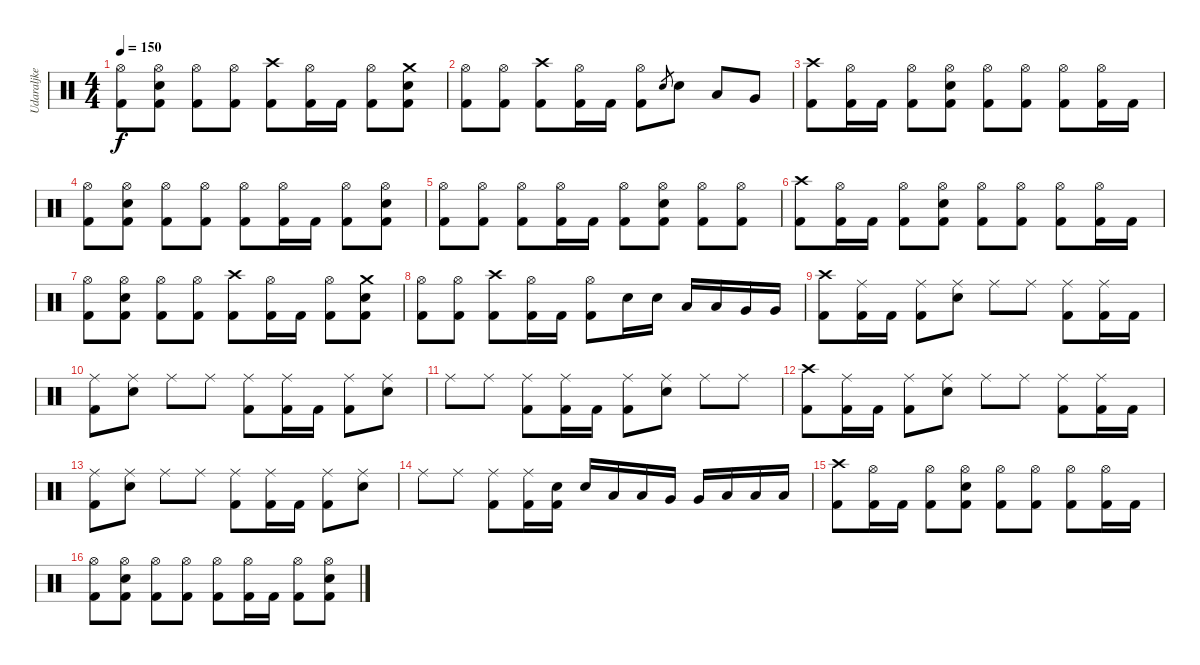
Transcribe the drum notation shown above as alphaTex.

\track ("Udaraljke" "Udaraljke") {instrument percussion}
\staff {score}
\articulation defaults
\ts (4 4)
\tempo 150
\clef neutral
\ks c
("Hi-Hat (open)" "Kick (hit) 2").8{dy f} ("Hi-Hat (open)" "Electric Snare (hit)" "Kick (hit) 2").8 ("Hi-Hat (open)" "Kick (hit) 2").8 ("Hi-Hat (open)" "Kick (hit) 2").8 ("Crash high (hit)" "Kick (hit) 2").8 ("Hi-Hat (open)" "Kick (hit) 2").16 "Kick (hit) 2".16 ("Hi-Hat (open)" "Kick (hit) 2").8 ("Crash medium (hit)" "Electric Snare (hit)" "Kick (hit) 2").8 |
("Hi-Hat (open)" "Kick (hit) 2").8 ("Hi-Hat (open)" "Kick (hit) 2").8 ("Crash high (hit)" "Kick (hit) 2").8 ("Hi-Hat (open)" "Kick (hit) 2").16 "Kick (hit) 2".16 ("Hi-Hat (open)" "Kick (hit) 2").8 "Electric Snare (hit)".8{gr} "Electric Snare (hit)".8 "Low Floor Tom (hit)".8 "Very Low Tom (hit)".8 |
("Crash high (hit)" "Kick (hit) 2").8 ("Hi-Hat (open)" "Kick (hit) 2").16 "Kick (hit) 2".16 ("Hi-Hat (open)" "Kick (hit) 2").8 ("Hi-Hat (open)" "Electric Snare (hit)" "Kick (hit) 2").8 ("Hi-Hat (open)" "Kick (hit) 2").8 ("Hi-Hat (open)" "Kick (hit) 2").8 ("Hi-Hat (open)" "Kick (hit) 2").8 ("Hi-Hat (open)" "Kick (hit) 2").16 "Kick (hit) 2".16 |
("Hi-Hat (open)" "Kick (hit) 2").8 ("Hi-Hat (open)" "Electric Snare (hit)" "Kick (hit) 2").8 ("Hi-Hat (open)" "Kick (hit) 2").8 ("Hi-Hat (open)" "Kick (hit) 2").8 ("Hi-Hat (open)" "Kick (hit) 2").8 ("Hi-Hat (open)" "Kick (hit) 2").16 "Kick (hit) 2".16 ("Hi-Hat (open)" "Kick (hit) 2").8 ("Hi-Hat (open)" "Electric Snare (hit)" "Kick (hit) 2").8 |
("Hi-Hat (open)" "Kick (hit) 2").8 ("Hi-Hat (open)" "Kick (hit) 2").8 ("Hi-Hat (open)" "Kick (hit) 2").8 ("Hi-Hat (open)" "Kick (hit) 2").16 "Kick (hit) 2".16 ("Hi-Hat (open)" "Kick (hit) 2").8 ("Hi-Hat (open)" "Electric Snare (hit)" "Kick (hit) 2").8 ("Hi-Hat (open)" "Kick (hit) 2").8 ("Hi-Hat (open)" "Kick (hit) 2").8 |
("Crash high (hit)" "Kick (hit) 2").8 ("Hi-Hat (open)" "Kick (hit) 2").16 "Kick (hit) 2".16 ("Hi-Hat (open)" "Kick (hit) 2").8 ("Hi-Hat (open)" "Electric Snare (hit)" "Kick (hit) 2").8 ("Hi-Hat (open)" "Kick (hit) 2").8 ("Hi-Hat (open)" "Kick (hit) 2").8 ("Hi-Hat (open)" "Kick (hit) 2").8 ("Hi-Hat (open)" "Kick (hit) 2").16 "Kick (hit) 2".16 |
("Hi-Hat (open)" "Kick (hit) 2").8 ("Hi-Hat (open)" "Electric Snare (hit)" "Kick (hit) 2").8 ("Hi-Hat (open)" "Kick (hit) 2").8 ("Hi-Hat (open)" "Kick (hit) 2").8 ("Crash high (hit)" "Kick (hit) 2").8 ("Hi-Hat (open)" "Kick (hit) 2").16 "Kick (hit) 2".16 ("Hi-Hat (open)" "Kick (hit) 2").8 ("Crash medium (hit)" "Electric Snare (hit)" "Kick (hit) 2").8 |
("Hi-Hat (open)" "Kick (hit) 2").8 ("Hi-Hat (open)" "Kick (hit) 2").8 ("Crash high (hit)" "Kick (hit) 2").8 ("Hi-Hat (open)" "Kick (hit) 2").16 "Kick (hit) 2".16 ("Hi-Hat (open)" "Kick (hit) 2").8 "Electric Snare (hit)".16 "Electric Snare (hit)".16 "Low Floor Tom (hit)".16 "Low Floor Tom (hit)".16 "Very Low Tom (hit)".16 "Very Low Tom (hit)".16 |
("Crash high (hit)" "Kick (hit) 2").8 ("Ride (middle)" "Kick (hit) 2").16 "Kick (hit) 2".16 ("Ride (middle)" "Kick (hit) 2").8 ("Ride (middle)" "Electric Snare (hit)").8 "Ride (middle)".8 "Ride (middle)".8 ("Ride (middle)" "Kick (hit) 2").8 ("Ride (middle)" "Kick (hit) 2").16 "Kick (hit) 2".16 |
("Ride (middle)" "Kick (hit) 2").8 ("Ride (middle)" "Electric Snare (hit)").8 "Ride (middle)".8 "Ride (middle)".8 ("Ride (middle)" "Kick (hit) 2").8 ("Ride (middle)" "Kick (hit) 2").16 "Kick (hit) 2".16 ("Ride (middle)" "Kick (hit) 2").8 ("Ride (middle)" "Electric Snare (hit)").8 |
"Ride (middle)".8 "Ride (middle)".8 ("Ride (middle)" "Kick (hit) 2").8 ("Ride (middle)" "Kick (hit) 2").16 "Kick (hit) 2".16 ("Ride (middle)" "Kick (hit) 2").8 ("Ride (middle)" "Electric Snare (hit)").8 "Ride (middle)".8 "Ride (middle)".8 |
("Crash high (hit)" "Kick (hit) 2").8 ("Ride (middle)" "Kick (hit) 2").16 "Kick (hit) 2".16 ("Ride (middle)" "Kick (hit) 2").8 ("Ride (middle)" "Electric Snare (hit)").8 "Ride (middle)".8 "Ride (middle)".8 ("Ride (middle)" "Kick (hit) 2").8 ("Ride (middle)" "Kick (hit) 2").16 "Kick (hit) 2".16 |
("Ride (middle)" "Kick (hit) 2").8 ("Ride (middle)" "Electric Snare (hit)").8 "Ride (middle)".8 "Ride (middle)".8 ("Ride (middle)" "Kick (hit) 2").8 ("Ride (middle)" "Kick (hit) 2").16 "Kick (hit) 2".16 ("Ride (middle)" "Kick (hit) 2").8 ("Ride (middle)" "Electric Snare (hit)").8 |
"Ride (middle)".8 "Ride (middle)".8 ("Ride (middle)" "Kick (hit) 2").8 ("Ride (middle)" "Kick (hit) 2").16 ("Electric Snare (hit)" "Kick (hit) 2").16 "Electric Snare (hit)".16 "Low Floor Tom (hit)".16 "Low Floor Tom (hit)".16 "Very Low Tom (hit)".16 "Very Low Tom (hit)".16 "Low Floor Tom (hit)".16 "Low Floor Tom (hit)".16 "Low Tom (hit)".16 |
("Crash high (hit)" "Kick (hit) 2").8 ("Hi-Hat (open)" "Kick (hit) 2").16 "Kick (hit) 2".16 ("Hi-Hat (open)" "Kick (hit) 2").8 ("Hi-Hat (open)" "Electric Snare (hit)" "Kick (hit) 2").8 ("Hi-Hat (open)" "Kick (hit) 2").8 ("Hi-Hat (open)" "Kick (hit) 2").8 ("Hi-Hat (open)" "Kick (hit) 2").8 ("Hi-Hat (open)" "Kick (hit) 2").16 "Kick (hit) 2".16 |
("Hi-Hat (open)" "Kick (hit) 2").8 ("Hi-Hat (open)" "Electric Snare (hit)" "Kick (hit) 2").8 ("Hi-Hat (open)" "Kick (hit) 2").8 ("Hi-Hat (open)" "Kick (hit) 2").8 ("Hi-Hat (open)" "Kick (hit) 2").8 ("Hi-Hat (open)" "Kick (hit) 2").16 "Kick (hit) 2".16 ("Hi-Hat (open)" "Kick (hit) 2").8 ("Hi-Hat (open)" "Electric Snare (hit)" "Kick (hit) 2").8
